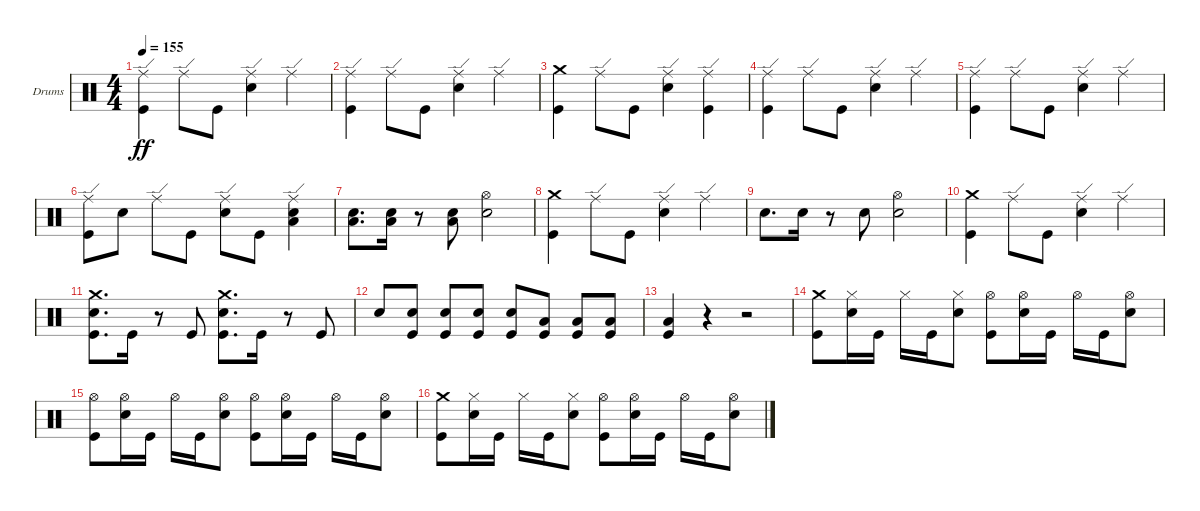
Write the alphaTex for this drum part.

\defaultSystemsLayout 4
\bracketExtendMode groupsimilarinstruments
\firstSystemTrackNameOrientation horizontal
\otherSystemsTrackNameOrientation horizontal
\track ("Drums - Brandon Barnes" "Drums") {instrument percussion}
\staff {score}
\articulation defaults
\ts (4 4)
\tempo 155
\clef neutral
\scale
0.333333
\ks c
("Kick (hit)" "Ride (edge)").4{dy ff} "Ride (edge)".8 "Kick (hit)".8 ("Snare (hit) 2" "Ride (edge)").4 "Ride (edge)".4 |
\scale
0.333333 ("Kick (hit)" "Ride (edge)").4 "Ride (edge)".8 "Kick (hit)".8 ("Snare (hit) 2" "Ride (edge)").4 "Ride (edge)".4 |
\scale
0.333333 ("Kick (hit)" "Crash medium (hit)").4 "Ride (edge)".8 "Kick (hit)".8 ("Snare (hit) 2" "Ride (edge)").4 ("Ride (edge)" "Kick (hit)").4 |
\scale
0.333333 ("Kick (hit)" "Ride (edge)").4 "Ride (edge)".8 "Kick (hit)".8 ("Snare (hit) 2" "Ride (edge)").4 "Ride (edge)".4 |
\scale
0.333333 ("Kick (hit)" "Ride (edge)").4 "Ride (edge)".8 "Kick (hit)".8 ("Snare (hit) 2" "Ride (edge)").4 "Ride (edge)".4 |
\scale
0.333333 ("Kick (hit)" "Ride (edge)").8 "Snare (hit) 2".8 "Ride (edge)".8 "Kick (hit)".8 ("Snare (hit) 2" "Ride (edge)").8 "Kick (hit)".8 ("Snare (hit) 2" "Low Tom (hit)" "Ride (edge)").4 |
\scale
0.333333 ("Snare (hit) 2" "Low Tom (hit)").8{d} ("Snare (hit) 2" "Low Tom (hit)").16 r.8 ("Snare (hit) 2" "Low Tom (hit)").8 ("Snare (hit) 2" "Hi-Hat (open)").2 |
\scale
0.333333 ("Crash medium (hit)" "Kick (hit)").4 "Ride (edge)".8 "Kick (hit)".8 ("Snare (hit) 2" "Ride (edge)").4 "Ride (edge)".4 |
\scale
0.333333 "Snare (hit) 2".8{d} "Snare (hit) 2".16 r.8 "Snare (hit) 2".8 ("Snare (hit) 2" "Hi-Hat (open)").2 |
\scale
0.333333 ("Crash medium (hit)" "Kick (hit)").4 "Ride (edge)".8 "Kick (hit)".8 ("Snare (hit) 2" "Ride (edge)").4 "Ride (edge)".4 |
\scale
0.333333 ("Snare (hit) 2" "Kick (hit)" "Crash medium (hit)").8{d} "Kick (hit)".16 r.8 "Kick (hit)".8 ("Snare (hit) 2" "Kick (hit)" "Crash medium (hit)").8{d} "Kick (hit)".16 r.8 "Kick (hit)".8 |
\scale
0.333333 "Snare (hit) 2".8 ("Snare (hit) 2" "Kick (hit)").8 ("Snare (hit) 2" "Kick (hit)").8 ("Snare (hit) 2" "Kick (hit)").8 ("Snare (hit) 2" "Kick (hit)").8 ("Low Tom (hit)" "Kick (hit)").8 ("Low Tom (hit)" "Kick (hit)").8 ("Low Tom (hit)" "Kick (hit)").8 |
\scale
0.333333 ("Low Tom (hit)" "Kick (hit)").4 r.4 r.2 |
\scale
0.333333 ("Kick (hit)" "Crash medium (hit)").8 ("Snare (hit) 2" "Hi-Hat (closed)").16 "Kick (hit)".16 "Hi-Hat (closed)".16 "Kick (hit)".16 ("Snare (hit) 2" "Hi-Hat (closed)").8 ("Kick (hit)" "Hi-Hat (open)").8 ("Snare (hit) 2" "Hi-Hat (open)").16 "Kick (hit)".16 "Hi-Hat (open)".16 "Kick (hit)".16 ("Snare (hit) 2" "Hi-Hat (open)").8 |
\scale
0.333333 ("Kick (hit)" "Hi-Hat (open)").8 ("Snare (hit) 2" "Hi-Hat (open)").16 "Kick (hit)".16 "Hi-Hat (open)".16 "Kick (hit)".16 ("Snare (hit) 2" "Hi-Hat (open)").8 ("Kick (hit)" "Hi-Hat (open)").8 ("Snare (hit) 2" "Hi-Hat (open)").16 "Kick (hit)".16 "Hi-Hat (open)".16 "Kick (hit)".16 ("Snare (hit) 2" "Hi-Hat (open)").8 |
\scale
0.333333 ("Kick (hit)" "Crash medium (hit)").8 ("Snare (hit) 2" "Hi-Hat (closed)").16 "Kick (hit)".16 "Hi-Hat (closed)".16 "Kick (hit)".16 ("Snare (hit) 2" "Hi-Hat (closed)").8 ("Kick (hit)" "Hi-Hat (open)").8 ("Snare (hit) 2" "Hi-Hat (open)").16 "Kick (hit)".16 "Hi-Hat (open)".16 "Kick (hit)".16 ("Snare (hit) 2" "Hi-Hat (open)").8
